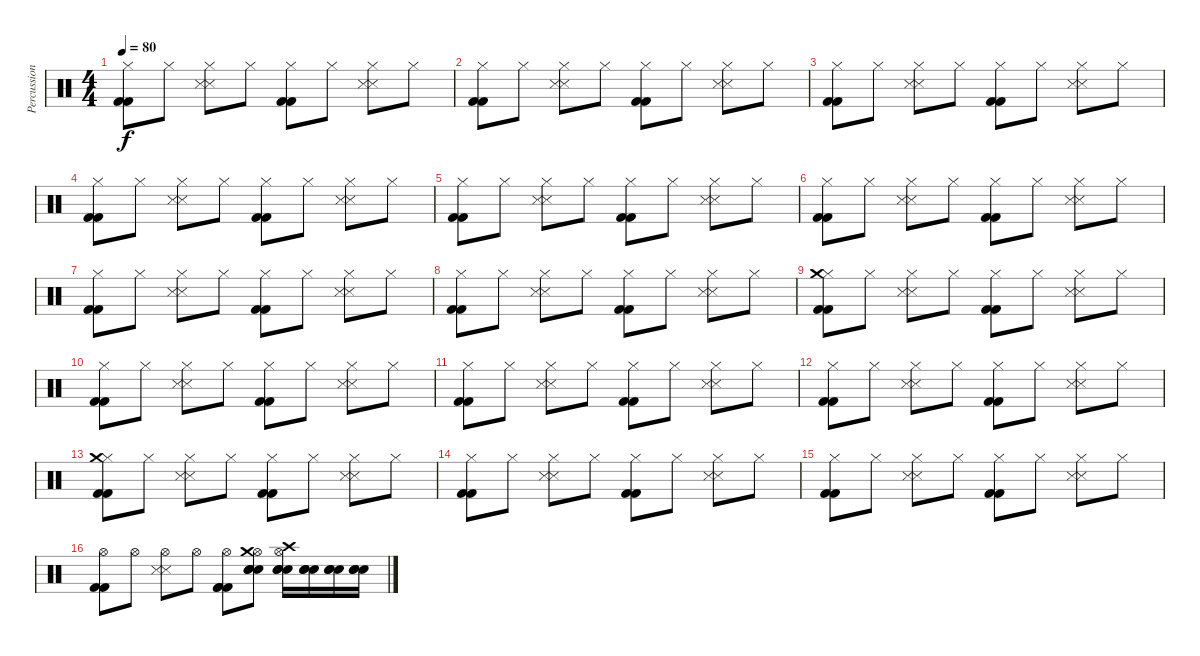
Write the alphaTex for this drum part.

\track ("Percussion" "Percussion") {instrument percussion}
\staff {score}
\articulation defaults
\ts (4 4)
\tempo 80
\clef neutral
\ks c
("Hi-Hat (closed)" "Kick (hit) 2" "Kick (hit) 2").8{dy f} "Hi-Hat (closed)".8 ("Hi-Hat (closed)" "Snare (side stick) 3" "Snare (side stick) 3").8 "Hi-Hat (closed)".8 ("Hi-Hat (closed)" "Kick (hit) 2" "Kick (hit) 2").8 "Hi-Hat (closed)".8 ("Hi-Hat (closed)" "Snare (side stick) 3" "Snare (side stick) 3").8 "Hi-Hat (closed)".8 |
("Hi-Hat (closed)" "Kick (hit) 2" "Kick (hit) 2").8 "Hi-Hat (closed)".8 ("Hi-Hat (closed)" "Snare (side stick) 3" "Snare (side stick) 3").8 "Hi-Hat (closed)".8 ("Hi-Hat (closed)" "Kick (hit) 2" "Kick (hit) 2").8 "Hi-Hat (closed)".8 ("Hi-Hat (closed)" "Snare (side stick) 3" "Snare (side stick) 3").8 "Hi-Hat (closed)".8 |
("Hi-Hat (closed)" "Kick (hit) 2" "Kick (hit) 2").8 "Hi-Hat (closed)".8 ("Hi-Hat (closed)" "Snare (side stick) 3" "Snare (side stick) 3").8 "Hi-Hat (closed)".8 ("Hi-Hat (closed)" "Kick (hit) 2" "Kick (hit) 2").8 "Hi-Hat (closed)".8 ("Hi-Hat (closed)" "Snare (side stick) 3" "Snare (side stick) 3").8 "Hi-Hat (closed)".8 |
("Hi-Hat (closed)" "Kick (hit) 2" "Kick (hit) 2").8 "Hi-Hat (closed)".8 ("Hi-Hat (closed)" "Snare (side stick) 3" "Snare (side stick) 3").8 "Hi-Hat (closed)".8 ("Hi-Hat (closed)" "Kick (hit) 2" "Kick (hit) 2").8 "Hi-Hat (closed)".8 ("Hi-Hat (closed)" "Snare (side stick) 3" "Snare (side stick) 3").8 "Hi-Hat (closed)".8 |
("Hi-Hat (closed)" "Kick (hit) 2" "Kick (hit) 2").8 "Hi-Hat (closed)".8 ("Hi-Hat (closed)" "Snare (side stick) 3" "Snare (side stick) 3").8 "Hi-Hat (closed)".8 ("Hi-Hat (closed)" "Kick (hit) 2" "Kick (hit) 2").8 "Hi-Hat (closed)".8 ("Hi-Hat (closed)" "Snare (side stick) 3" "Snare (side stick) 3").8 "Hi-Hat (closed)".8 |
("Hi-Hat (closed)" "Kick (hit) 2" "Kick (hit) 2").8 "Hi-Hat (closed)".8 ("Hi-Hat (closed)" "Snare (side stick) 3" "Snare (side stick) 3").8 "Hi-Hat (closed)".8 ("Hi-Hat (closed)" "Kick (hit) 2" "Kick (hit) 2").8 "Hi-Hat (closed)".8 ("Hi-Hat (closed)" "Snare (side stick) 3" "Snare (side stick) 3").8 "Hi-Hat (closed)".8 |
("Hi-Hat (closed)" "Kick (hit) 2" "Kick (hit) 2").8 "Hi-Hat (closed)".8 ("Hi-Hat (closed)" "Snare (side stick) 3" "Snare (side stick) 3").8 "Hi-Hat (closed)".8 ("Hi-Hat (closed)" "Kick (hit) 2" "Kick (hit) 2").8 "Hi-Hat (closed)".8 ("Hi-Hat (closed)" "Snare (side stick) 3" "Snare (side stick) 3").8 "Hi-Hat (closed)".8 |
("Hi-Hat (closed)" "Kick (hit) 2" "Kick (hit) 2").8 "Hi-Hat (closed)".8 ("Hi-Hat (closed)" "Snare (side stick) 3" "Snare (side stick) 3").8 "Hi-Hat (closed)".8 ("Hi-Hat (closed)" "Kick (hit) 2" "Kick (hit) 2").8 "Hi-Hat (closed)".8 ("Hi-Hat (closed)" "Snare (side stick) 3" "Snare (side stick) 3").8 "Hi-Hat (closed)".8 |
("Hi-Hat (closed)" "Kick (hit) 2" "Kick (hit) 2" "Crash medium (hit)").8 "Hi-Hat (closed)".8 ("Hi-Hat (closed)" "Snare (side stick) 3" "Snare (side stick) 3").8 "Hi-Hat (closed)".8 ("Hi-Hat (closed)" "Kick (hit) 2" "Kick (hit) 2").8 "Hi-Hat (closed)".8 ("Hi-Hat (closed)" "Snare (side stick) 3" "Snare (side stick) 3").8 "Hi-Hat (closed)".8 |
("Hi-Hat (closed)" "Kick (hit) 2" "Kick (hit) 2").8 "Hi-Hat (closed)".8 ("Hi-Hat (closed)" "Snare (side stick) 3" "Snare (side stick) 3").8 "Hi-Hat (closed)".8 ("Hi-Hat (closed)" "Kick (hit) 2" "Kick (hit) 2").8 "Hi-Hat (closed)".8 ("Hi-Hat (closed)" "Snare (side stick) 3" "Snare (side stick) 3").8 "Hi-Hat (closed)".8 |
("Hi-Hat (closed)" "Kick (hit) 2" "Kick (hit) 2").8 "Hi-Hat (closed)".8 ("Hi-Hat (closed)" "Snare (side stick) 3" "Snare (side stick) 3").8 "Hi-Hat (closed)".8 ("Hi-Hat (closed)" "Kick (hit) 2" "Kick (hit) 2").8 "Hi-Hat (closed)".8 ("Hi-Hat (closed)" "Snare (side stick) 3" "Snare (side stick) 3").8 "Hi-Hat (closed)".8 |
("Hi-Hat (closed)" "Kick (hit) 2" "Kick (hit) 2").8 "Hi-Hat (closed)".8 ("Hi-Hat (closed)" "Snare (side stick) 3" "Snare (side stick) 3").8 "Hi-Hat (closed)".8 ("Hi-Hat (closed)" "Kick (hit) 2" "Kick (hit) 2").8 "Hi-Hat (closed)".8 ("Hi-Hat (closed)" "Snare (side stick) 3" "Snare (side stick) 3").8 "Hi-Hat (closed)".8 |
("Hi-Hat (closed)" "Kick (hit) 2" "Kick (hit) 2" "Crash medium (hit)").8 "Hi-Hat (closed)".8 ("Hi-Hat (closed)" "Snare (side stick) 3" "Snare (side stick) 3").8 "Hi-Hat (closed)".8 ("Hi-Hat (closed)" "Kick (hit) 2" "Kick (hit) 2").8 "Hi-Hat (closed)".8 ("Hi-Hat (closed)" "Snare (side stick) 3" "Snare (side stick) 3").8 "Hi-Hat (closed)".8 |
("Hi-Hat (closed)" "Kick (hit) 2" "Kick (hit) 2").8 "Hi-Hat (closed)".8 ("Hi-Hat (closed)" "Snare (side stick) 3" "Snare (side stick) 3").8 "Hi-Hat (closed)".8 ("Hi-Hat (closed)" "Kick (hit) 2" "Kick (hit) 2").8 "Hi-Hat (closed)".8 ("Hi-Hat (closed)" "Snare (side stick) 3" "Snare (side stick) 3").8 "Hi-Hat (closed)".8 |
("Hi-Hat (closed)" "Kick (hit) 2" "Kick (hit) 2").8 "Hi-Hat (closed)".8 ("Hi-Hat (closed)" "Snare (side stick) 3" "Snare (side stick) 3").8 "Hi-Hat (closed)".8 ("Hi-Hat (closed)" "Kick (hit) 2" "Kick (hit) 2").8 "Hi-Hat (closed)".8 ("Hi-Hat (closed)" "Snare (side stick) 3" "Snare (side stick) 3").8 "Hi-Hat (closed)".8 |
("Hi-Hat (open)" "Kick (hit) 2" "Kick (hit) 2").8 "Hi-Hat (open)".8 ("Hi-Hat (open)" "Snare (side stick) 3" "Snare (side stick) 3").8 "Hi-Hat (open)".8 ("Hi-Hat (open)" "Kick (hit) 2" "Kick (hit) 2" "Kick (hit) 2").8 ("Hi-Hat (open)" "Electric Snare (hit)" "Electric Snare (hit)" "Electric Snare (hit)" "Crash medium (hit)").8 ("Hi-Hat (open)" "Electric Snare (hit)" "Electric Snare (hit)" "Electric Snare (hit)" "Crash high (hit)").16 ("Electric Snare (hit)" "Electric Snare (hit)" "Electric Snare (hit)").16 ("Electric Snare (hit)" "Electric Snare (hit)" "Electric Snare (hit)").16 ("Electric Snare (hit)" "Electric Snare (hit)" "Electric Snare (hit)").16
